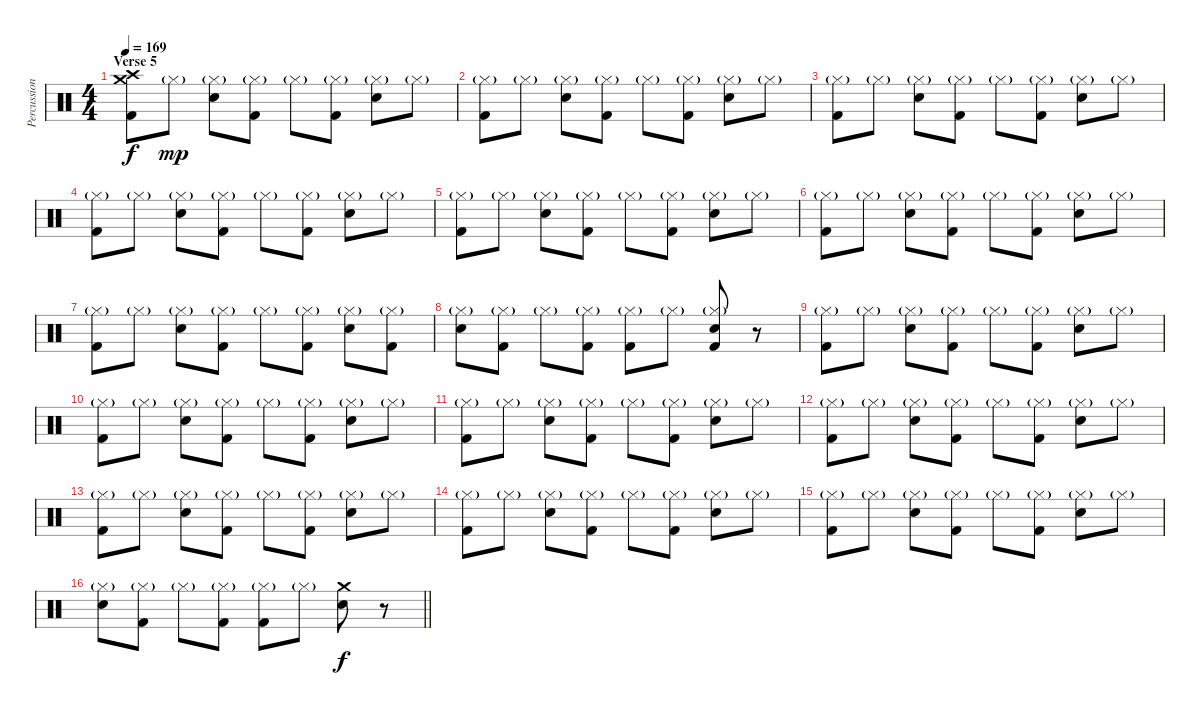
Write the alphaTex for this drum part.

\track ("Percussion" "Percussion") {instrument percussion}
\staff {score}
\articulation defaults
\ts (4 4)
\section ("" "Verse 5")
\tempo 169
\clef neutral
\ks c
("Crash high (hit)" "Crash medium (hit)" "Kick (hit) 2").8{dy f} "Hi-Hat (closed)"{g}.8{dy mp} ("Hi-Hat (closed)"{g} "Snare (hit) 2").8 ("Hi-Hat (closed)"{g} "Kick (hit) 2").8 "Hi-Hat (closed)"{g}.8 ("Hi-Hat (closed)"{g} "Kick (hit) 2").8 ("Hi-Hat (closed)"{g} "Snare (hit) 2").8 "Hi-Hat (closed)"{g}.8 |
("Hi-Hat (closed)"{g} "Kick (hit) 2").8 "Hi-Hat (closed)"{g}.8 ("Hi-Hat (closed)"{g} "Snare (hit) 2").8 ("Hi-Hat (closed)"{g} "Kick (hit) 2").8 "Hi-Hat (closed)"{g}.8 ("Hi-Hat (closed)"{g} "Kick (hit) 2").8 ("Hi-Hat (closed)"{g} "Snare (hit) 2").8 "Hi-Hat (closed)"{g}.8 |
("Hi-Hat (closed)"{g} "Kick (hit) 2").8 "Hi-Hat (closed)"{g}.8 ("Hi-Hat (closed)"{g} "Snare (hit) 2").8 ("Hi-Hat (closed)"{g} "Kick (hit) 2").8 "Hi-Hat (closed)"{g}.8 ("Hi-Hat (closed)"{g} "Kick (hit) 2").8 ("Hi-Hat (closed)"{g} "Snare (hit) 2").8 "Hi-Hat (closed)"{g}.8 |
("Hi-Hat (closed)"{g} "Kick (hit) 2").8 "Hi-Hat (closed)"{g}.8 ("Hi-Hat (closed)"{g} "Snare (hit) 2").8 ("Hi-Hat (closed)"{g} "Kick (hit) 2").8 "Hi-Hat (closed)"{g}.8 ("Hi-Hat (closed)"{g} "Kick (hit) 2").8 ("Hi-Hat (closed)"{g} "Snare (hit) 2").8 "Hi-Hat (closed)"{g}.8 |
("Hi-Hat (closed)"{g} "Kick (hit) 2").8 "Hi-Hat (closed)"{g}.8 ("Hi-Hat (closed)"{g} "Snare (hit) 2").8 ("Hi-Hat (closed)"{g} "Kick (hit) 2").8 "Hi-Hat (closed)"{g}.8 ("Hi-Hat (closed)"{g} "Kick (hit) 2").8 ("Hi-Hat (closed)"{g} "Snare (hit) 2").8 "Hi-Hat (closed)"{g}.8 |
("Hi-Hat (closed)"{g} "Kick (hit) 2").8 "Hi-Hat (closed)"{g}.8 ("Hi-Hat (closed)"{g} "Snare (hit) 2").8 ("Hi-Hat (closed)"{g} "Kick (hit) 2").8 "Hi-Hat (closed)"{g}.8 ("Hi-Hat (closed)"{g} "Kick (hit) 2").8 ("Hi-Hat (closed)"{g} "Snare (hit) 2").8 "Hi-Hat (closed)"{g}.8 |
("Hi-Hat (closed)"{g} "Kick (hit) 2").8 "Hi-Hat (closed)"{g}.8 ("Hi-Hat (closed)"{g} "Snare (hit) 2").8 ("Hi-Hat (closed)"{g} "Kick (hit) 2").8 "Hi-Hat (closed)"{g}.8 ("Hi-Hat (closed)"{g} "Kick (hit) 2").8 ("Hi-Hat (closed)"{g} "Snare (hit) 2").8 ("Hi-Hat (closed)"{g} "Kick (hit) 2").8 |
("Hi-Hat (closed)"{g} "Snare (hit) 2").8 ("Hi-Hat (closed)"{g} "Kick (hit) 2").8 "Hi-Hat (closed)"{g}.8 ("Hi-Hat (closed)"{g} "Kick (hit) 2").8 ("Hi-Hat (closed)"{g} "Kick (hit) 2").8 "Hi-Hat (closed)"{g}.8 ("Hi-Hat (closed)"{g} "Snare (hit) 2" "Kick (hit) 2").8 r.8 |
("Hi-Hat (closed)"{g} "Kick (hit) 2").8 "Hi-Hat (closed)"{g}.8 ("Hi-Hat (closed)"{g} "Snare (hit) 2").8 ("Hi-Hat (closed)"{g} "Kick (hit) 2").8 "Hi-Hat (closed)"{g}.8 ("Hi-Hat (closed)"{g} "Kick (hit) 2").8 ("Hi-Hat (closed)"{g} "Snare (hit) 2").8 "Hi-Hat (closed)"{g}.8 |
("Hi-Hat (closed)"{g} "Kick (hit) 2").8 "Hi-Hat (closed)"{g}.8 ("Hi-Hat (closed)"{g} "Snare (hit) 2").8 ("Hi-Hat (closed)"{g} "Kick (hit) 2").8 "Hi-Hat (closed)"{g}.8 ("Hi-Hat (closed)"{g} "Kick (hit) 2").8 ("Hi-Hat (closed)"{g} "Snare (hit) 2").8 "Hi-Hat (closed)"{g}.8 |
("Hi-Hat (closed)"{g} "Kick (hit) 2").8 "Hi-Hat (closed)"{g}.8 ("Hi-Hat (closed)"{g} "Snare (hit) 2").8 ("Hi-Hat (closed)"{g} "Kick (hit) 2").8 "Hi-Hat (closed)"{g}.8 ("Hi-Hat (closed)"{g} "Kick (hit) 2").8 ("Hi-Hat (closed)"{g} "Snare (hit) 2").8 "Hi-Hat (closed)"{g}.8 |
("Hi-Hat (closed)"{g} "Kick (hit) 2").8 "Hi-Hat (closed)"{g}.8 ("Hi-Hat (closed)"{g} "Snare (hit) 2").8 ("Hi-Hat (closed)"{g} "Kick (hit) 2").8 "Hi-Hat (closed)"{g}.8 ("Hi-Hat (closed)"{g} "Kick (hit) 2").8 ("Hi-Hat (closed)"{g} "Snare (hit) 2").8 "Hi-Hat (closed)"{g}.8 |
("Hi-Hat (closed)"{g} "Kick (hit) 2").8 "Hi-Hat (closed)"{g}.8 ("Hi-Hat (closed)"{g} "Snare (hit) 2").8 ("Hi-Hat (closed)"{g} "Kick (hit) 2").8 "Hi-Hat (closed)"{g}.8 ("Hi-Hat (closed)"{g} "Kick (hit) 2").8 ("Hi-Hat (closed)"{g} "Snare (hit) 2").8 "Hi-Hat (closed)"{g}.8 |
("Hi-Hat (closed)"{g} "Kick (hit) 2").8 "Hi-Hat (closed)"{g}.8 ("Hi-Hat (closed)"{g} "Snare (hit) 2").8 ("Hi-Hat (closed)"{g} "Kick (hit) 2").8 "Hi-Hat (closed)"{g}.8 ("Hi-Hat (closed)"{g} "Kick (hit) 2").8 ("Hi-Hat (closed)"{g} "Snare (hit) 2").8 "Hi-Hat (closed)"{g}.8 |
("Hi-Hat (closed)"{g} "Kick (hit) 2").8 "Hi-Hat (closed)"{g}.8 ("Hi-Hat (closed)"{g} "Snare (hit) 2").8 ("Hi-Hat (closed)"{g} "Kick (hit) 2").8 "Hi-Hat (closed)"{g}.8 ("Hi-Hat (closed)"{g} "Kick (hit) 2").8 ("Hi-Hat (closed)"{g} "Snare (hit) 2").8 "Hi-Hat (closed)"{g}.8 |
\barLineRight lightlight
("Hi-Hat (closed)"{g} "Snare (hit) 2").8 ("Hi-Hat (closed)"{g} "Kick (hit) 2").8 "Hi-Hat (closed)"{g}.8 ("Hi-Hat (closed)"{g} "Kick (hit) 2").8 ("Hi-Hat (closed)"{g} "Kick (hit) 2").8 "Hi-Hat (closed)"{g}.8 ("Snare (hit) 2" "Crash medium (hit)").8{dy f} r.8
